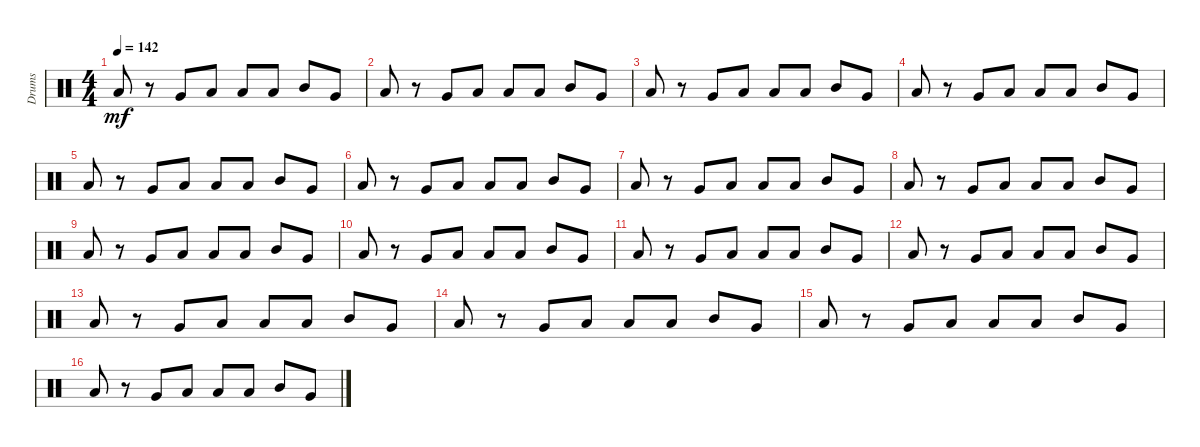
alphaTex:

\track ("Drums" "Drums") {instrument percussion}
\staff {score}
\articulation defaults
\ts (4 4)
\tempo 142
\clef neutral
\ks c "Low Tom (hit)".8{dy mf}
r.8 "Very Low Tom (hit)".8 "Low Tom (hit)".8 "Low Floor Tom (hit)".8 "Low Floor Tom (hit)".8 "Mid Tom (hit)".8 "Very Low Tom (hit)".8 |
"Low Tom (hit)".8 r.8 "Very Low Tom (hit)".8 "Low Tom (hit)".8 "Low Floor Tom (hit)".8 "Low Floor Tom (hit)".8 "Mid Tom (hit)".8 "Very Low Tom (hit)".8 |
"Low Tom (hit)".8 r.8 "Very Low Tom (hit)".8 "Low Tom (hit)".8 "Low Floor Tom (hit)".8 "Low Floor Tom (hit)".8 "Mid Tom (hit)".8 "Very Low Tom (hit)".8 |
"Low Tom (hit)".8 r.8 "Very Low Tom (hit)".8 "Low Tom (hit)".8 "Low Floor Tom (hit)".8 "Low Floor Tom (hit)".8 "Mid Tom (hit)".8 "Very Low Tom (hit)".8 |
"Low Tom (hit)".8 r.8 "Very Low Tom (hit)".8 "Low Tom (hit)".8 "Low Floor Tom (hit)".8 "Low Floor Tom (hit)".8 "Mid Tom (hit)".8 "Very Low Tom (hit)".8 |
"Low Tom (hit)".8 r.8 "Very Low Tom (hit)".8 "Low Tom (hit)".8 "Low Floor Tom (hit)".8 "Low Floor Tom (hit)".8 "Mid Tom (hit)".8 "Very Low Tom (hit)".8 |
"Low Tom (hit)".8 r.8 "Very Low Tom (hit)".8 "Low Tom (hit)".8 "Low Floor Tom (hit)".8 "Low Floor Tom (hit)".8 "Mid Tom (hit)".8 "Very Low Tom (hit)".8 |
"Low Tom (hit)".8 r.8 "Very Low Tom (hit)".8 "Low Tom (hit)".8 "Low Floor Tom (hit)".8 "Low Floor Tom (hit)".8 "Mid Tom (hit)".8 "Very Low Tom (hit)".8 |
"Low Tom (hit)".8 r.8 "Very Low Tom (hit)".8 "Low Tom (hit)".8 "Low Floor Tom (hit)".8 "Low Floor Tom (hit)".8 "Mid Tom (hit)".8 "Very Low Tom (hit)".8 |
"Low Tom (hit)".8 r.8 "Very Low Tom (hit)".8 "Low Tom (hit)".8 "Low Floor Tom (hit)".8 "Low Floor Tom (hit)".8 "Mid Tom (hit)".8 "Very Low Tom (hit)".8 |
"Low Tom (hit)".8 r.8 "Very Low Tom (hit)".8 "Low Tom (hit)".8 "Low Floor Tom (hit)".8 "Low Floor Tom (hit)".8 "Mid Tom (hit)".8 "Very Low Tom (hit)".8 |
"Low Tom (hit)".8 r.8 "Very Low Tom (hit)".8 "Low Tom (hit)".8 "Low Floor Tom (hit)".8 "Low Floor Tom (hit)".8 "Mid Tom (hit)".8 "Very Low Tom (hit)".8 |
"Low Tom (hit)".8 r.8 "Very Low Tom (hit)".8 "Low Tom (hit)".8 "Low Floor Tom (hit)".8 "Low Floor Tom (hit)".8 "Mid Tom (hit)".8 "Very Low Tom (hit)".8 |
"Low Tom (hit)".8 r.8 "Very Low Tom (hit)".8 "Low Tom (hit)".8 "Low Floor Tom (hit)".8 "Low Floor Tom (hit)".8 "Mid Tom (hit)".8 "Very Low Tom (hit)".8 |
"Low Tom (hit)".8 r.8 "Very Low Tom (hit)".8 "Low Tom (hit)".8 "Low Floor Tom (hit)".8 "Low Floor Tom (hit)".8 "Mid Tom (hit)".8 "Very Low Tom (hit)".8 |
"Low Tom (hit)".8 r.8 "Very Low Tom (hit)".8 "Low Tom (hit)".8 "Low Floor Tom (hit)".8 "Low Floor Tom (hit)".8 "Mid Tom (hit)".8 "Very Low Tom (hit)".8
